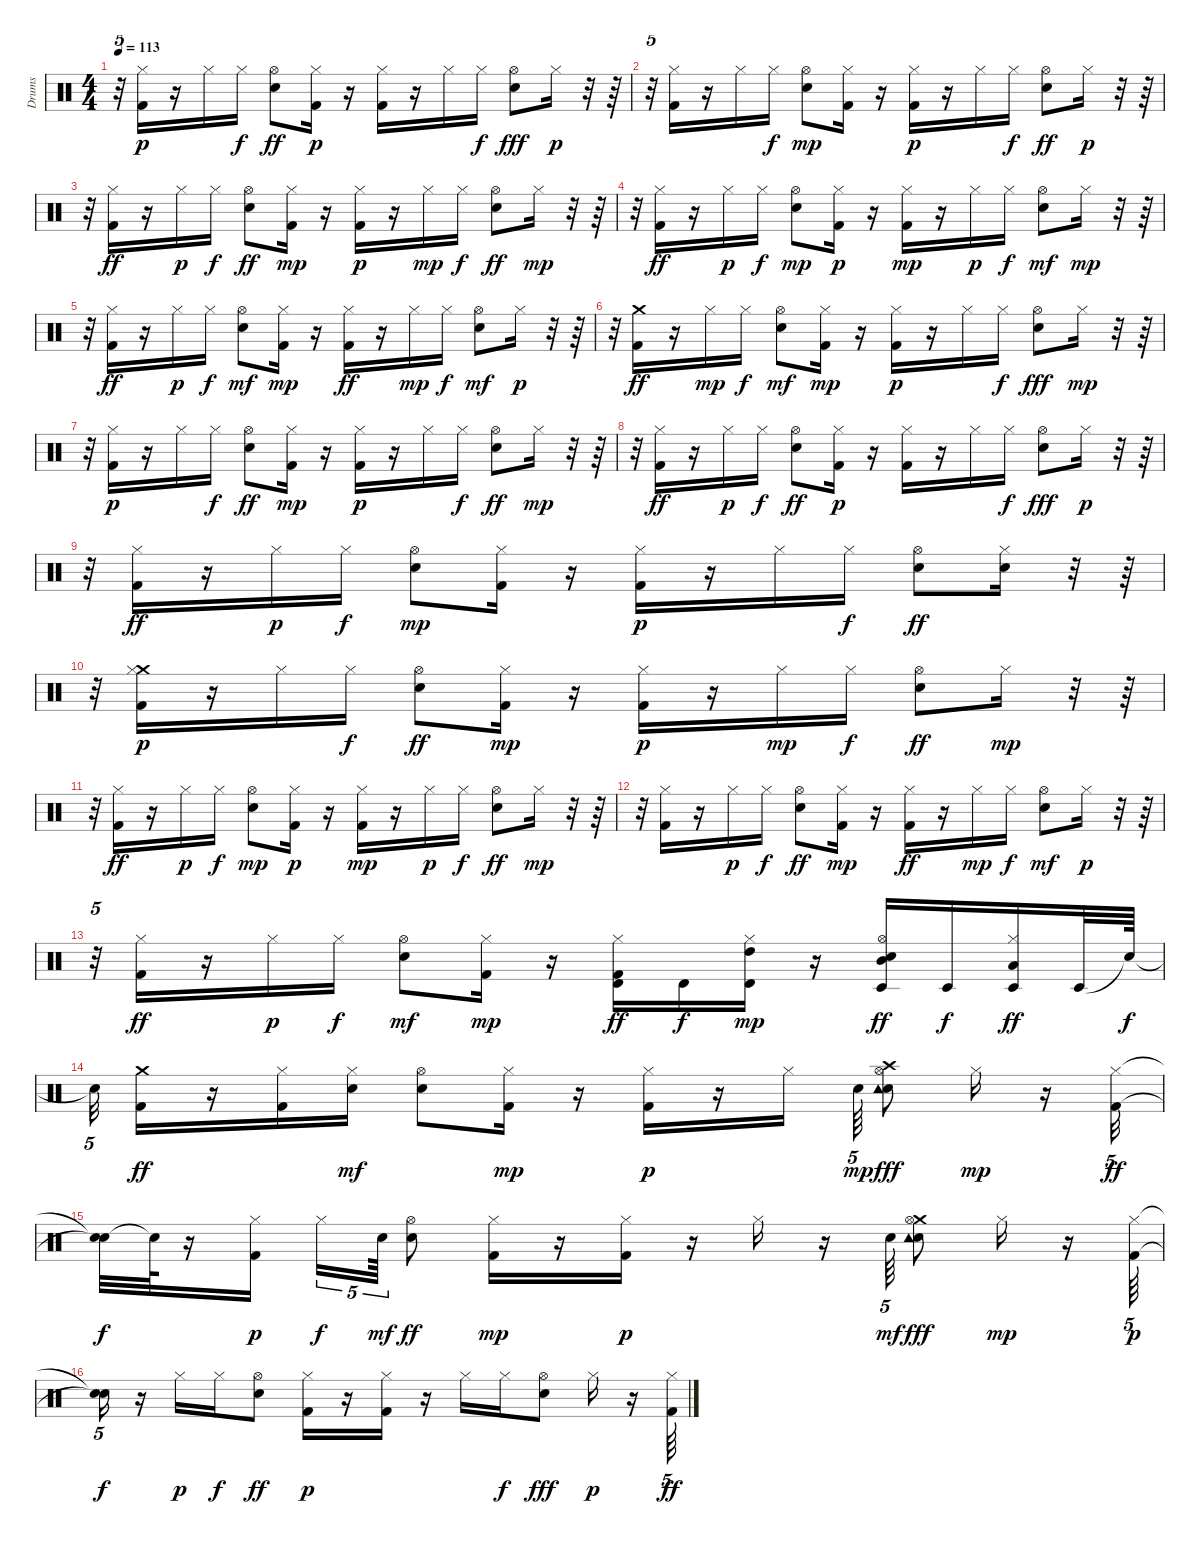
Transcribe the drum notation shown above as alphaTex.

\track ("Drums" "Drums") {instrument percussion}
\staff {score}
\articulation defaults
\ts (4 4)
\tempo 113
\clef neutral
\ks c
r.32{tu (5 4) dy mp} ("Kick (hit) 2" "Hi-Hat (closed)").16{dy p} r.16 "Hi-Hat (closed)".16 "Hi-Hat (closed)".16{dy f} ("Hi-Hat (open)" "Electric Snare (hit)").8{dy ff} ("Hi-Hat (closed)" "Kick (hit) 2").16{dy p} r.16 ("Kick (hit) 2" "Hi-Hat (closed)").16 r.16 "Hi-Hat (closed)".16 "Hi-Hat (closed)".16{dy f} ("Hi-Hat (open)" "Electric Snare (hit)").8{dy fff} "Hi-Hat (closed)".16{dy p} r.32 r.64 |
r.32{tu (5 4)} ("Kick (hit) 2" "Hi-Hat (closed)").16 r.16 "Hi-Hat (closed)".16 "Hi-Hat (closed)".16{dy f} ("Electric Snare (hit)" "Hi-Hat (open)").8{dy mp} ("Hi-Hat (closed)" "Kick (hit) 2").16 r.16 ("Kick (hit) 2" "Hi-Hat (closed)").16{dy p} r.16 "Hi-Hat (closed)".16 "Hi-Hat (closed)".16{dy f} ("Hi-Hat (open)" "Electric Snare (hit)").8{dy ff} "Hi-Hat (closed)".16{dy p} r.32 r.64 |
r.32{tu (5 4)} ("Hi-Hat (closed)" "Kick (hit) 2").16{dy ff} r.16 "Hi-Hat (closed)".16{dy p} "Hi-Hat (closed)".16{dy f} ("Hi-Hat (open)" "Electric Snare (hit)").8{dy ff} ("Kick (hit) 2" "Hi-Hat (closed)").16{dy mp} r.16 ("Kick (hit) 2" "Hi-Hat (closed)").16{dy p} r.16 "Hi-Hat (closed)".16{dy mp} "Hi-Hat (closed)".16{dy f} ("Hi-Hat (open)" "Electric Snare (hit)").8{dy ff} "Hi-Hat (closed)".16{dy mp} r.32 r.64 |
r.32{tu (5 4)} ("Hi-Hat (closed)" "Kick (hit) 2").16{dy ff} r.16 "Hi-Hat (closed)".16{dy p} "Hi-Hat (closed)".16{dy f} ("Electric Snare (hit)" "Hi-Hat (open)").8{dy mp} ("Kick (hit) 2" "Hi-Hat (closed)").16{dy p} r.16 ("Hi-Hat (closed)" "Kick (hit) 2").16{dy mp} r.16 "Hi-Hat (closed)".16{dy p} "Hi-Hat (closed)".16{dy f} ("Electric Snare (hit)" "Hi-Hat (open)").8{dy mf} "Hi-Hat (closed)".16{dy mp} r.32 r.64 |
r.32{tu (5 4)} ("Hi-Hat (closed)" "Kick (hit) 2").16{dy ff} r.16 "Hi-Hat (closed)".16{dy p} "Hi-Hat (closed)".16{dy f} ("Electric Snare (hit)" "Hi-Hat (open)").8{dy mf} ("Hi-Hat (closed)" "Kick (hit) 2").16{dy mp} r.16 ("Hi-Hat (closed)" "Kick (hit) 2").16{dy ff} r.16 "Hi-Hat (closed)".16{dy mp} "Hi-Hat (closed)".16{dy f} ("Electric Snare (hit)" "Hi-Hat (open)").8{dy mf} "Hi-Hat (closed)".16{dy p} r.32 r.64 |
r.32{tu (5 4)} ("Kick (hit) 2" "Crash medium (hit)").16{dy ff} r.16 "Hi-Hat (closed)".16{dy mp} "Hi-Hat (closed)".16{dy f} ("Electric Snare (hit)" "Hi-Hat (open)").8{dy mf} ("Kick (hit) 2" "Hi-Hat (closed)").16{dy mp} r.16 ("Hi-Hat (closed)" "Kick (hit) 2").16{dy p} r.16 "Hi-Hat (closed)".16 "Hi-Hat (closed)".16{dy f} ("Electric Snare (hit)" "Hi-Hat (open)").8{dy fff} "Hi-Hat (closed)".16{dy mp} r.32 r.64 |
r.32{tu (5 4)} ("Kick (hit) 2" "Hi-Hat (closed)").16{dy p} r.16 "Hi-Hat (closed)".16 "Hi-Hat (closed)".16{dy f} ("Hi-Hat (open)" "Electric Snare (hit)").8{dy ff} ("Kick (hit) 2" "Hi-Hat (closed)").16{dy mp} r.16 ("Kick (hit) 2" "Hi-Hat (closed)").16{dy p} r.16 "Hi-Hat (closed)".16 "Hi-Hat (closed)".16{dy f} ("Hi-Hat (open)" "Electric Snare (hit)").8{dy ff} "Hi-Hat (closed)".16{dy mp} r.32 r.64 |
r.32{tu (5 4)} ("Hi-Hat (closed)" "Kick (hit) 2").16{dy ff} r.16 "Hi-Hat (closed)".16{dy p} "Hi-Hat (closed)".16{dy f} ("Hi-Hat (open)" "Electric Snare (hit)").8{dy ff} ("Kick (hit) 2" "Hi-Hat (closed)").16{dy p} r.16 ("Kick (hit) 2" "Hi-Hat (closed)").16 r.16 "Hi-Hat (closed)".16 "Hi-Hat (closed)".16{dy f} ("Hi-Hat (open)" "Electric Snare (hit)").8{dy fff} "Hi-Hat (closed)".16{dy p} r.32 r.64 |
r.32{tu (5 4)} ("Hi-Hat (closed)" "Kick (hit) 2").16{dy ff} r.16 "Hi-Hat (closed)".16{dy p} "Hi-Hat (closed)".16{dy f} ("Electric Snare (hit)" "Hi-Hat (open)").8{dy mp} ("Hi-Hat (closed)" "Kick (hit) 2").16 r.16 ("Kick (hit) 2" "Hi-Hat (closed)").16{dy p} r.16 "Hi-Hat (closed)".16 "Hi-Hat (closed)".16{dy f} ("Hi-Hat (open)" "Electric Snare (hit)").8{dy ff} ("Hi-Hat (closed)" "Electric Snare (hit)").16 r.32 r.64 |
r.32{tu (5 4)} ("Kick (hit) 2" "Crash medium (hit)" "Hi-Hat (closed)").16{dy p} r.16 "Hi-Hat (closed)".16 "Hi-Hat (closed)".16{dy f} ("Hi-Hat (open)" "Electric Snare (hit)").8{dy ff} ("Kick (hit) 2" "Hi-Hat (closed)").16{dy mp} r.16 ("Kick (hit) 2" "Hi-Hat (closed)").16{dy p} r.16 "Hi-Hat (closed)".16{dy mp} "Hi-Hat (closed)".16{dy f} ("Hi-Hat (open)" "Electric Snare (hit)").8{dy ff} "Hi-Hat (closed)".16{dy mp} r.32 r.64 |
r.32{tu (5 4)} ("Hi-Hat (closed)" "Kick (hit) 2").16{dy ff} r.16 "Hi-Hat (closed)".16{dy p} "Hi-Hat (closed)".16{dy f} ("Electric Snare (hit)" "Hi-Hat (open)").8{dy mp} ("Kick (hit) 2" "Hi-Hat (closed)").16{dy p} r.16 ("Hi-Hat (closed)" "Kick (hit) 2").16{dy mp} r.16 "Hi-Hat (closed)".16{dy p} "Hi-Hat (closed)".16{dy f} ("Hi-Hat (open)" "Electric Snare (hit)").8{dy ff} "Hi-Hat (closed)".16{dy mp} r.32 r.64 |
r.32{tu (5 4)} ("Kick (hit) 2" "Hi-Hat (closed)").16 r.16 "Hi-Hat (closed)".16{dy p} "Hi-Hat (closed)".16{dy f} ("Hi-Hat (open)" "Electric Snare (hit)").8{dy ff} ("Kick (hit) 2" "Hi-Hat (closed)").16{dy mp} r.16 ("Hi-Hat (closed)" "Kick (hit) 2").16{dy ff} r.16 "Hi-Hat (closed)".16{dy mp} "Hi-Hat (closed)".16{dy f} ("Electric Snare (hit)" "Hi-Hat (open)").8{dy mf} "Hi-Hat (closed)".16{dy p} r.32 r.64 |
r.32{tu (5 4)} ("Hi-Hat (closed)" "Kick (hit) 2").16{dy ff} r.16 "Hi-Hat (closed)".16{dy p} "Hi-Hat (closed)".16{dy f} ("Electric Snare (hit)" "Hi-Hat (open)").8{dy mf} ("Kick (hit) 2" "Hi-Hat (closed)").16{dy mp} r.16 ("Hi-Hat (closed)" "Kick (hit) 2" "Timbale high (hit)").16{dy ff} "Timbale high (hit)".16{dy f} ("Timbale high (hit)" "Hi-Hat (closed)" "High Tom (hit)").16{dy mp} r.16 ("Mid Tom (hit)" "Electric Snare (hit)" "Timbale low (hit)" "Hi-Hat (open)").16{dy ff} "Timbale low (hit)".16{dy f} ("Low Tom (hit)" "Hi-Hat (closed)" "Timbale low (hit)").16{dy ff} "Timbale low (hit)".32 "Snare (hit)"{t}.64{dy f} |
"Snare (hit)"{t}.32{tu (5 4)} ("Kick (hit) 2" "Crash medium (hit)").16{dy ff} r.16 ("Hi-Hat (closed)" "Kick (hit) 2").16 ("Hi-Hat (closed)" "Snare (hit) 2").16{dy mf} ("Electric Snare (hit)" "Hi-Hat (open)").8 ("Hi-Hat (closed)" "Kick (hit) 2").16{dy mp} r.16 ("Kick (hit) 2" "Hi-Hat (closed)").16{dy p} r.16 "Hi-Hat (closed)".16{beam splitsecondary} "Snare (hit) 2".64{tu (5 4) dy mp} ("Hi-Hat (open)" "Electric Snare (hit)" "Crash high (hit)" "Tambourine (hit)").8{dy fff} "Hi-Hat (closed)".16{dy mp} r.16 ("Hi-Hat (closed)" "Kick (hit) 2").32{tu (5 4) dy ff} |
("Snare (hit)"{t} "Snare (hit)"{t}).32{dy f} "Snare (hit)"{t}.64 r.16 ("Kick (hit) 2" "Hi-Hat (closed)").16{dy p beam splitsecondary} "Hi-Hat (closed)".16{tu (5 4) dy f} "Snare (hit) 2".64{tu (5 4) dy mf} ("Hi-Hat (open)" "Electric Snare (hit)").8{dy ff} ("Kick (hit) 2" "Hi-Hat (closed)").16{dy mp} r.16 ("Hi-Hat (closed)" "Kick (hit) 2").16{dy p} r.16 "Hi-Hat (closed)".16 r.16 "Snare (hit) 2".64{tu (5 4) dy mf} ("Crash medium (hit)" "Electric Snare (hit)" "Hi-Hat (open)" "Tambourine (hit)").8{dy fff} "Hi-Hat (closed)".16{dy mp} r.16 ("Kick (hit) 2" "Hi-Hat (closed)").64{tu (5 4) dy p} |
("Snare (hit)"{t} "Snare (hit)"{t}).16{tu (5 4) dy f} r.16 "Hi-Hat (closed)".16{dy p} "Hi-Hat (closed)".16{dy f} ("Hi-Hat (open)" "Electric Snare (hit)").8{dy ff} ("Kick (hit) 2" "Hi-Hat (closed)").16{dy p} r.16 ("Hi-Hat (closed)" "Kick (hit) 2").16 r.16 "Hi-Hat (closed)".16 "Hi-Hat (closed)".16{dy f} ("Hi-Hat (open)" "Electric Snare (hit)").8{dy fff} "Hi-Hat (closed)".16{dy p} r.16 ("Hi-Hat (closed)" "Kick (hit) 2").64{tu (5 4) dy ff}
